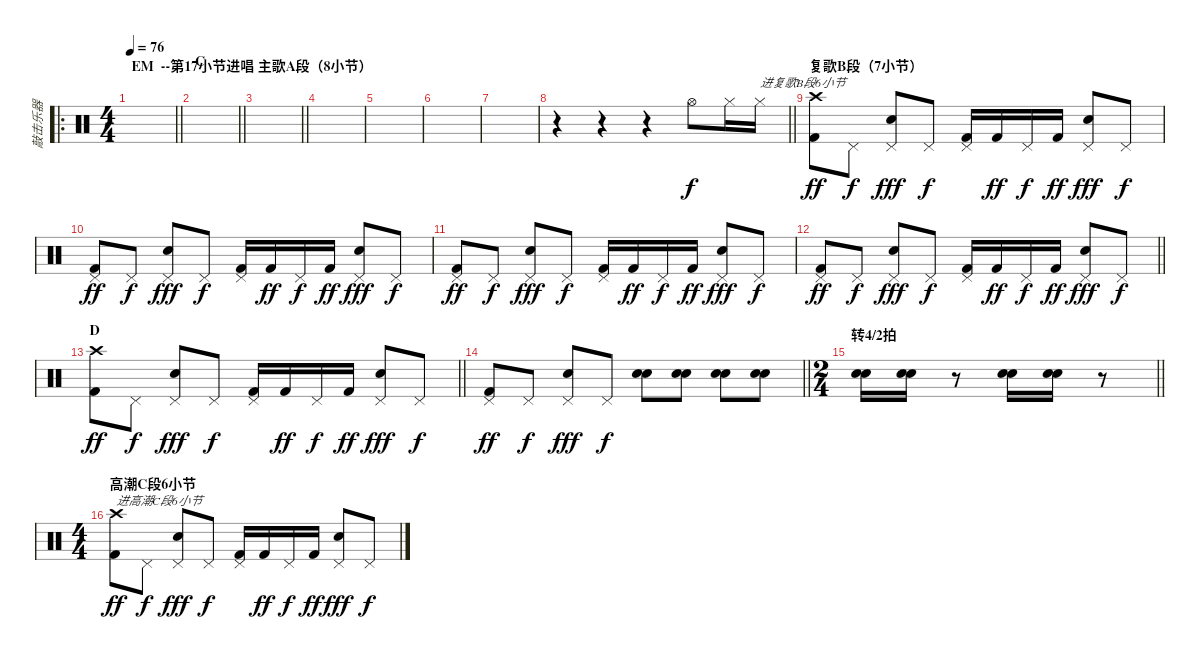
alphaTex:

\track ("敲击乐器" "敲击乐器") {instrument percussion}
\staff {score}
\articulation defaults
\ro
\ts (4 4)
\section ("" "EM  --第17小节进唱 主歌A段（8小节）")
\tempo 76
\clef neutral
\barLineRight lightlight
\ks c
|
\section ("" "C")
\barLineRight lightlight
|
\barLineRight lightlight
|
|
|
|
|
\barLineRight lightlight
r.4 r.4 r.4 "Hi-Hat (open)".8 "Hi-Hat (closed)".16 "Hi-Hat (closed)".16{txt "进复歌B段6小节"} |
\section ("" "复歌B段（7小节）")
("Crash high (hit)" "Kick (hit) 2").8{dy ff} "Pedal Hi-Hat (hit)".8{dy f} ("Pedal Hi-Hat (hit)" "Electric Snare (hit)").8{dy fff} "Pedal Hi-Hat (hit)".8{dy f} ("Pedal Hi-Hat (hit)" "Kick (hit) 2").16 "Kick (hit) 2".16{dy ff} "Pedal Hi-Hat (hit)".16{dy f} "Kick (hit) 2".16{dy ff} ("Pedal Hi-Hat (hit)" "Electric Snare (hit)").8{dy fff} "Pedal Hi-Hat (hit)".8{dy f} |
("Pedal Hi-Hat (hit)" "Kick (hit) 2").8{dy ff} "Pedal Hi-Hat (hit)".8{dy f} ("Pedal Hi-Hat (hit)" "Electric Snare (hit)").8{dy fff} "Pedal Hi-Hat (hit)".8{dy f} ("Pedal Hi-Hat (hit)" "Kick (hit) 2").16 "Kick (hit) 2".16{dy ff} "Pedal Hi-Hat (hit)".16{dy f} "Kick (hit) 2".16{dy ff} ("Pedal Hi-Hat (hit)" "Electric Snare (hit)").8{dy fff} "Pedal Hi-Hat (hit)".8{dy f} |
("Pedal Hi-Hat (hit)" "Kick (hit) 2").8{dy ff} "Pedal Hi-Hat (hit)".8{dy f} ("Pedal Hi-Hat (hit)" "Electric Snare (hit)").8{dy fff} "Pedal Hi-Hat (hit)".8{dy f} ("Pedal Hi-Hat (hit)" "Kick (hit) 2").16 "Kick (hit) 2".16{dy ff} "Pedal Hi-Hat (hit)".16{dy f} "Kick (hit) 2".16{dy ff} ("Pedal Hi-Hat (hit)" "Electric Snare (hit)").8{dy fff} "Pedal Hi-Hat (hit)".8{dy f} |
\barLineRight lightlight
("Pedal Hi-Hat (hit)" "Kick (hit) 2").8{dy ff} "Pedal Hi-Hat (hit)".8{dy f} ("Pedal Hi-Hat (hit)" "Electric Snare (hit)").8{dy fff} "Pedal Hi-Hat (hit)".8{dy f} ("Pedal Hi-Hat (hit)" "Kick (hit) 2").16 "Kick (hit) 2".16{dy ff} "Pedal Hi-Hat (hit)".16{dy f} "Kick (hit) 2".16{dy ff} ("Pedal Hi-Hat (hit)" "Electric Snare (hit)").8{dy fff} "Pedal Hi-Hat (hit)".8{dy f} |
\section ("" "D")
\barLineRight lightlight
("Crash high (hit)" "Kick (hit) 2").8{dy ff} "Pedal Hi-Hat (hit)".8{dy f} ("Pedal Hi-Hat (hit)" "Electric Snare (hit)").8{dy fff} "Pedal Hi-Hat (hit)".8{dy f} ("Pedal Hi-Hat (hit)" "Kick (hit) 2").16 "Kick (hit) 2".16{dy ff} "Pedal Hi-Hat (hit)".16{dy f} "Kick (hit) 2".16{dy ff} ("Pedal Hi-Hat (hit)" "Electric Snare (hit)").8{dy fff} "Pedal Hi-Hat (hit)".8{dy f} |
\section ("" "")
\barLineRight lightlight
("Pedal Hi-Hat (hit)" "Kick (hit) 2").8{dy ff} "Pedal Hi-Hat (hit)".8{dy f} ("Pedal Hi-Hat (hit)" "Electric Snare (hit)").8{dy fff} "Pedal Hi-Hat (hit)".8{dy f} ("Snare (hit) 2" "Snare (hit) 2").8 ("Snare (hit) 2" "Snare (hit) 2").8 ("Snare (hit) 2" "Snare (hit) 2").8 ("Snare (hit) 2" "Snare (hit) 2").8 |
\ts (2 4)
\section ("" "转4/2拍")
\barLineRight lightlight
("Snare (hit) 2" "Snare (hit) 2").16 ("Snare (hit) 2" "Snare (hit) 2").16 r.8 ("Snare (hit) 2" "Snare (hit) 2").16 ("Snare (hit) 2" "Snare (hit) 2").16 r.8 |
\ts (4 4)
\section ("" "高潮C段6小节")
("Crash high (hit)" "Kick (hit) 2").8{txt "进高潮C段6小节" dy ff} "Pedal Hi-Hat (hit)".8{dy f} ("Pedal Hi-Hat (hit)" "Electric Snare (hit)").8{dy fff} "Pedal Hi-Hat (hit)".8{dy f} ("Pedal Hi-Hat (hit)" "Kick (hit) 2").16 "Kick (hit) 2".16{dy ff} "Pedal Hi-Hat (hit)".16{dy f} "Kick (hit) 2".16{dy ff} ("Pedal Hi-Hat (hit)" "Electric Snare (hit)").8{dy fff} "Pedal Hi-Hat (hit)".8{dy f}
